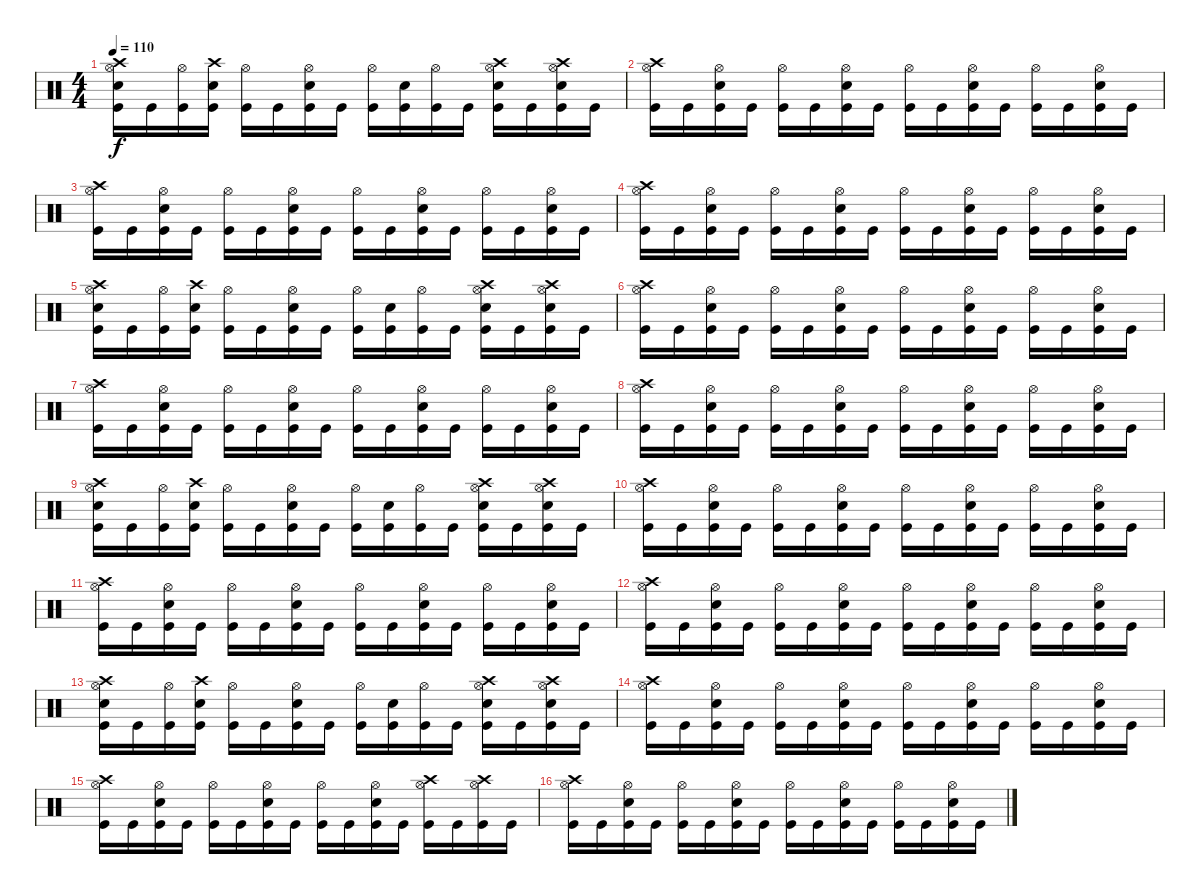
\track "" {instrument percussion}
\staff {score}
\articulation defaults
\ts (4 4)
\tempo 110
\clef neutral
\ks c
("Crash high (hit)" "Electric Snare (hit)" "Kick (hit)" "Hi-Hat (open)").16{dy f} "Kick (hit)".16 ("Kick (hit)" "Hi-Hat (open)").16 ("Crash high (hit)" "Electric Snare (hit)" "Kick (hit)").16 ("Kick (hit)" "Hi-Hat (open)").16 "Kick (hit)".16 ("Electric Snare (hit)" "Kick (hit)" "Hi-Hat (open)").16 "Kick (hit)".16 ("Hi-Hat (open)" "Kick (hit)").16 ("Electric Snare (hit)" "Kick (hit)").16 ("Kick (hit)" "Hi-Hat (open)").16 "Kick (hit)".16 ("Crash high (hit)" "Electric Snare (hit)" "Hi-Hat (open)" "Kick (hit)").16 "Kick (hit)".16 ("Crash high (hit)" "Electric Snare (hit)" "Kick (hit)" "Hi-Hat (open)").16 "Kick (hit)".16 |
("Crash high (hit)" "Kick (hit)" "Hi-Hat (open)").16 "Kick (hit)".16 ("Kick (hit)" "Electric Snare (hit)" "Hi-Hat (open)").16 "Kick (hit)".16 ("Kick (hit)" "Hi-Hat (open)").16 "Kick (hit)".16 ("Kick (hit)" "Electric Snare (hit)" "Hi-Hat (open)").16 "Kick (hit)".16 ("Hi-Hat (open)" "Kick (hit)").16 "Kick (hit)".16 ("Kick (hit)" "Hi-Hat (open)" "Electric Snare (hit)").16 "Kick (hit)".16 ("Hi-Hat (open)" "Kick (hit)").16 "Kick (hit)".16 ("Kick (hit)" "Hi-Hat (open)" "Electric Snare (hit)").16 "Kick (hit)".16 |
("Crash high (hit)" "Kick (hit)" "Hi-Hat (open)").16 "Kick (hit)".16 ("Kick (hit)" "Electric Snare (hit)" "Hi-Hat (open)").16 "Kick (hit)".16 ("Kick (hit)" "Hi-Hat (open)").16 "Kick (hit)".16 ("Kick (hit)" "Electric Snare (hit)" "Hi-Hat (open)").16 "Kick (hit)".16 ("Hi-Hat (open)" "Kick (hit)").16 "Kick (hit)".16 ("Kick (hit)" "Hi-Hat (open)" "Electric Snare (hit)").16 "Kick (hit)".16 ("Hi-Hat (open)" "Kick (hit)").16 "Kick (hit)".16 ("Kick (hit)" "Hi-Hat (open)" "Electric Snare (hit)").16 "Kick (hit)".16 |
("Crash high (hit)" "Kick (hit)" "Hi-Hat (open)").16 "Kick (hit)".16 ("Kick (hit)" "Electric Snare (hit)" "Hi-Hat (open)").16 "Kick (hit)".16 ("Kick (hit)" "Hi-Hat (open)").16 "Kick (hit)".16 ("Kick (hit)" "Electric Snare (hit)" "Hi-Hat (open)").16 "Kick (hit)".16 ("Hi-Hat (open)" "Kick (hit)").16 "Kick (hit)".16 ("Kick (hit)" "Hi-Hat (open)" "Electric Snare (hit)").16 "Kick (hit)".16 ("Hi-Hat (open)" "Kick (hit)").16 "Kick (hit)".16 ("Kick (hit)" "Hi-Hat (open)" "Electric Snare (hit)").16 "Kick (hit)".16 |
("Crash high (hit)" "Electric Snare (hit)" "Kick (hit)" "Hi-Hat (open)").16 "Kick (hit)".16 ("Kick (hit)" "Hi-Hat (open)").16 ("Crash high (hit)" "Electric Snare (hit)" "Kick (hit)").16 ("Kick (hit)" "Hi-Hat (open)").16 "Kick (hit)".16 ("Electric Snare (hit)" "Kick (hit)" "Hi-Hat (open)").16 "Kick (hit)".16 ("Hi-Hat (open)" "Kick (hit)").16 ("Electric Snare (hit)" "Kick (hit)").16 ("Kick (hit)" "Hi-Hat (open)").16 "Kick (hit)".16 ("Crash high (hit)" "Electric Snare (hit)" "Hi-Hat (open)" "Kick (hit)").16 "Kick (hit)".16 ("Crash high (hit)" "Electric Snare (hit)" "Kick (hit)" "Hi-Hat (open)").16 "Kick (hit)".16 |
("Crash high (hit)" "Kick (hit)" "Hi-Hat (open)").16 "Kick (hit)".16 ("Kick (hit)" "Electric Snare (hit)" "Hi-Hat (open)").16 "Kick (hit)".16 ("Kick (hit)" "Hi-Hat (open)").16 "Kick (hit)".16 ("Kick (hit)" "Electric Snare (hit)" "Hi-Hat (open)").16 "Kick (hit)".16 ("Hi-Hat (open)" "Kick (hit)").16 "Kick (hit)".16 ("Kick (hit)" "Hi-Hat (open)" "Electric Snare (hit)").16 "Kick (hit)".16 ("Hi-Hat (open)" "Kick (hit)").16 "Kick (hit)".16 ("Kick (hit)" "Hi-Hat (open)" "Electric Snare (hit)").16 "Kick (hit)".16 |
("Crash high (hit)" "Kick (hit)" "Hi-Hat (open)").16 "Kick (hit)".16 ("Kick (hit)" "Electric Snare (hit)" "Hi-Hat (open)").16 "Kick (hit)".16 ("Kick (hit)" "Hi-Hat (open)").16 "Kick (hit)".16 ("Kick (hit)" "Electric Snare (hit)" "Hi-Hat (open)").16 "Kick (hit)".16 ("Hi-Hat (open)" "Kick (hit)").16 "Kick (hit)".16 ("Kick (hit)" "Hi-Hat (open)" "Electric Snare (hit)").16 "Kick (hit)".16 ("Hi-Hat (open)" "Kick (hit)").16 "Kick (hit)".16 ("Kick (hit)" "Hi-Hat (open)" "Electric Snare (hit)").16 "Kick (hit)".16 |
("Crash high (hit)" "Kick (hit)" "Hi-Hat (open)").16 "Kick (hit)".16 ("Kick (hit)" "Electric Snare (hit)" "Hi-Hat (open)").16 "Kick (hit)".16 ("Kick (hit)" "Hi-Hat (open)").16 "Kick (hit)".16 ("Kick (hit)" "Electric Snare (hit)" "Hi-Hat (open)").16 "Kick (hit)".16 ("Hi-Hat (open)" "Kick (hit)").16 "Kick (hit)".16 ("Kick (hit)" "Hi-Hat (open)" "Electric Snare (hit)").16 "Kick (hit)".16 ("Hi-Hat (open)" "Kick (hit)").16 "Kick (hit)".16 ("Kick (hit)" "Hi-Hat (open)" "Electric Snare (hit)").16 "Kick (hit)".16 |
("Crash high (hit)" "Electric Snare (hit)" "Kick (hit)" "Hi-Hat (open)").16 "Kick (hit)".16 ("Kick (hit)" "Hi-Hat (open)").16 ("Crash high (hit)" "Electric Snare (hit)" "Kick (hit)").16 ("Kick (hit)" "Hi-Hat (open)").16 "Kick (hit)".16 ("Electric Snare (hit)" "Kick (hit)" "Hi-Hat (open)").16 "Kick (hit)".16 ("Hi-Hat (open)" "Kick (hit)").16 ("Electric Snare (hit)" "Kick (hit)").16 ("Kick (hit)" "Hi-Hat (open)").16 "Kick (hit)".16 ("Crash high (hit)" "Electric Snare (hit)" "Hi-Hat (open)" "Kick (hit)").16 "Kick (hit)".16 ("Crash high (hit)" "Electric Snare (hit)" "Kick (hit)" "Hi-Hat (open)").16 "Kick (hit)".16 |
("Crash high (hit)" "Kick (hit)" "Hi-Hat (open)").16 "Kick (hit)".16 ("Kick (hit)" "Electric Snare (hit)" "Hi-Hat (open)").16 "Kick (hit)".16 ("Kick (hit)" "Hi-Hat (open)").16 "Kick (hit)".16 ("Kick (hit)" "Electric Snare (hit)" "Hi-Hat (open)").16 "Kick (hit)".16 ("Hi-Hat (open)" "Kick (hit)").16 "Kick (hit)".16 ("Kick (hit)" "Hi-Hat (open)" "Electric Snare (hit)").16 "Kick (hit)".16 ("Hi-Hat (open)" "Kick (hit)").16 "Kick (hit)".16 ("Kick (hit)" "Hi-Hat (open)" "Electric Snare (hit)").16 "Kick (hit)".16 |
("Crash high (hit)" "Kick (hit)" "Hi-Hat (open)").16 "Kick (hit)".16 ("Kick (hit)" "Electric Snare (hit)" "Hi-Hat (open)").16 "Kick (hit)".16 ("Kick (hit)" "Hi-Hat (open)").16 "Kick (hit)".16 ("Kick (hit)" "Electric Snare (hit)" "Hi-Hat (open)").16 "Kick (hit)".16 ("Hi-Hat (open)" "Kick (hit)").16 "Kick (hit)".16 ("Kick (hit)" "Hi-Hat (open)" "Electric Snare (hit)").16 "Kick (hit)".16 ("Hi-Hat (open)" "Kick (hit)").16 "Kick (hit)".16 ("Kick (hit)" "Hi-Hat (open)" "Electric Snare (hit)").16 "Kick (hit)".16 |
("Crash high (hit)" "Kick (hit)" "Hi-Hat (open)").16 "Kick (hit)".16 ("Kick (hit)" "Electric Snare (hit)" "Hi-Hat (open)").16 "Kick (hit)".16 ("Kick (hit)" "Hi-Hat (open)").16 "Kick (hit)".16 ("Kick (hit)" "Electric Snare (hit)" "Hi-Hat (open)").16 "Kick (hit)".16 ("Hi-Hat (open)" "Kick (hit)").16 "Kick (hit)".16 ("Kick (hit)" "Hi-Hat (open)" "Electric Snare (hit)").16 "Kick (hit)".16 ("Hi-Hat (open)" "Kick (hit)").16 "Kick (hit)".16 ("Kick (hit)" "Hi-Hat (open)" "Electric Snare (hit)").16 "Kick (hit)".16 |
("Crash high (hit)" "Electric Snare (hit)" "Kick (hit)" "Hi-Hat (open)").16 "Kick (hit)".16 ("Kick (hit)" "Hi-Hat (open)").16 ("Crash high (hit)" "Electric Snare (hit)" "Kick (hit)").16 ("Kick (hit)" "Hi-Hat (open)").16 "Kick (hit)".16 ("Electric Snare (hit)" "Kick (hit)" "Hi-Hat (open)").16 "Kick (hit)".16 ("Hi-Hat (open)" "Kick (hit)").16 ("Electric Snare (hit)" "Kick (hit)").16 ("Kick (hit)" "Hi-Hat (open)").16 "Kick (hit)".16 ("Crash high (hit)" "Electric Snare (hit)" "Hi-Hat (open)" "Kick (hit)").16 "Kick (hit)".16 ("Crash high (hit)" "Electric Snare (hit)" "Kick (hit)" "Hi-Hat (open)").16 "Kick (hit)".16 |
("Crash high (hit)" "Kick (hit)" "Hi-Hat (open)").16 "Kick (hit)".16 ("Kick (hit)" "Electric Snare (hit)" "Hi-Hat (open)").16 "Kick (hit)".16 ("Kick (hit)" "Hi-Hat (open)").16 "Kick (hit)".16 ("Kick (hit)" "Electric Snare (hit)" "Hi-Hat (open)").16 "Kick (hit)".16 ("Hi-Hat (open)" "Kick (hit)").16 "Kick (hit)".16 ("Kick (hit)" "Hi-Hat (open)" "Electric Snare (hit)").16 "Kick (hit)".16 ("Hi-Hat (open)" "Kick (hit)").16 "Kick (hit)".16 ("Kick (hit)" "Hi-Hat (open)" "Electric Snare (hit)").16 "Kick (hit)".16 |
("Crash high (hit)" "Kick (hit)" "Hi-Hat (open)").16 "Kick (hit)".16 ("Kick (hit)" "Electric Snare (hit)" "Hi-Hat (open)").16 "Kick (hit)".16 ("Kick (hit)" "Hi-Hat (open)").16 "Kick (hit)".16 ("Kick (hit)" "Electric Snare (hit)" "Hi-Hat (open)").16 "Kick (hit)".16 ("Hi-Hat (open)" "Kick (hit)").16 "Kick (hit)".16 ("Kick (hit)" "Hi-Hat (open)" "Electric Snare (hit)").16 "Kick (hit)".16 ("Hi-Hat (open)" "Kick (hit)" "Crash high (hit)").16 "Kick (hit)".16 ("Kick (hit)" "Hi-Hat (open)" "Crash high (hit)").16 "Kick (hit)".16 |
("Crash high (hit)" "Kick (hit)" "Hi-Hat (open)").16 "Kick (hit)".16 ("Kick (hit)" "Electric Snare (hit)" "Hi-Hat (open)").16 "Kick (hit)".16 ("Kick (hit)" "Hi-Hat (open)").16 "Kick (hit)".16 ("Kick (hit)" "Electric Snare (hit)" "Hi-Hat (open)").16 "Kick (hit)".16 ("Hi-Hat (open)" "Kick (hit)").16 "Kick (hit)".16 ("Kick (hit)" "Hi-Hat (open)" "Electric Snare (hit)").16 "Kick (hit)".16 ("Hi-Hat (open)" "Kick (hit)").16 "Kick (hit)".16 ("Kick (hit)" "Hi-Hat (open)" "Electric Snare (hit)").16 "Kick (hit)".16
